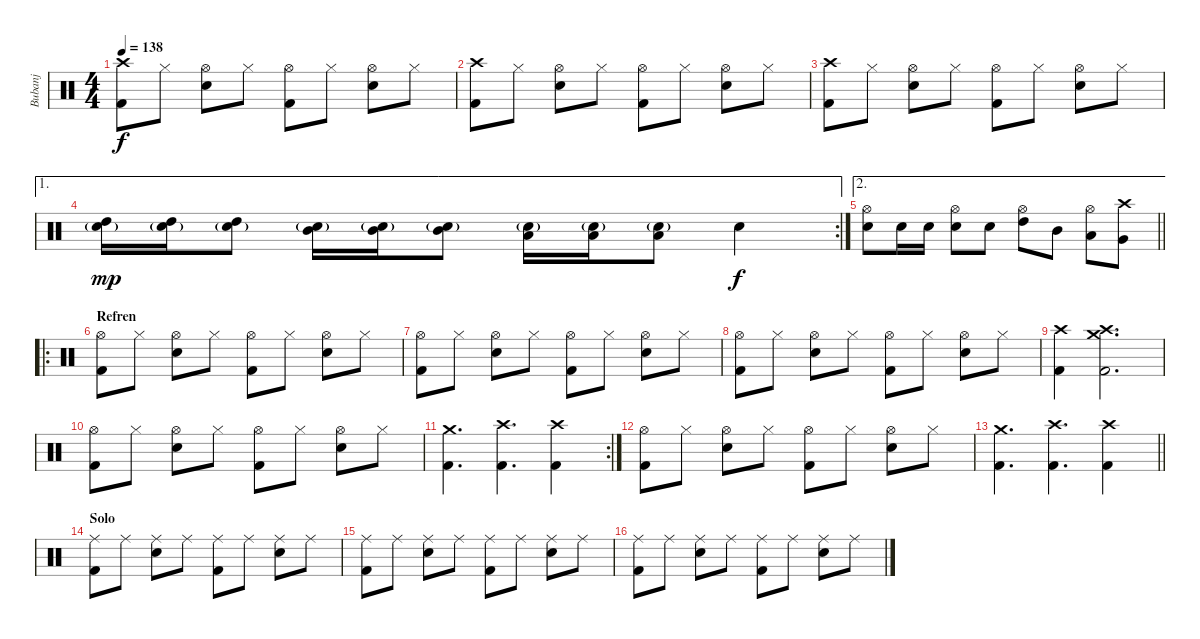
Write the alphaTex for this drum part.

\track ("Bubanj" "Bubanj") {instrument percussion}
\staff {score}
\articulation defaults
\ts (4 4)
\tempo 138
\clef neutral
\ks c
("Crash high (hit)" "Kick (hit) 2").8{dy f} "Hi-Hat (closed)".8 ("Hi-Hat (open)" "Snare (hit) 2").8 "Hi-Hat (closed)".8 ("Hi-Hat (open)" "Kick (hit) 2").8 "Hi-Hat (closed)".8 ("Hi-Hat (open)" "Snare (hit) 2").8 "Hi-Hat (closed)".8 |
("Crash high (hit)" "Kick (hit) 2").8 "Hi-Hat (closed)".8 ("Hi-Hat (open)" "Snare (hit) 2").8 "Hi-Hat (closed)".8 ("Hi-Hat (open)" "Kick (hit) 2").8 "Hi-Hat (closed)".8 ("Hi-Hat (open)" "Snare (hit) 2").8 "Hi-Hat (closed)".8 |
("Crash high (hit)" "Kick (hit) 2").8 "Hi-Hat (closed)".8 ("Hi-Hat (open)" "Snare (hit) 2").8 "Hi-Hat (closed)".8 ("Hi-Hat (open)" "Kick (hit) 2").8 "Hi-Hat (closed)".8 ("Hi-Hat (open)" "Snare (hit) 2").8 "Hi-Hat (closed)".8 |
\ae 1
\rc 2
("High Tom (hit)" "Snare (hit) 2"{g}).16{dy mp} ("High Tom (hit)" "Snare (hit) 2"{g}).16 ("High Tom (hit)" "Snare (hit) 2"{g}).8 ("Mid Tom (hit)" "Snare (hit) 2"{g}).16 ("Mid Tom (hit)" "Snare (hit) 2"{g}).16 ("Mid Tom (hit)" "Snare (hit) 2"{g}).8 ("Low Tom (hit)" "Snare (hit) 2"{g}).16 ("Low Tom (hit)" "Snare (hit) 2"{g}).16 ("Low Tom (hit)" "Snare (hit) 2"{g}).8 "Snare (hit) 2".4{dy f} |
\ae 2
\barLineRight lightlight
("Hi-Hat (open)" "Snare (hit) 2").8 "Snare (hit) 2".16 "Snare (hit) 2".16 ("Hi-Hat (open)" "Snare (hit) 2").8 "Snare (hit) 2".8 ("Hi-Hat (open)" "High Tom (hit)").8 "Mid Tom (hit)".8 ("Hi-Hat (open)" "Low Tom (hit)").8 ("Crash high (hit)" "Very Low Tom (hit)").8 |
\ro
\section ("" "Refren")
("Hi-Hat (open)" "Kick (hit) 2").8 "Hi-Hat (closed)".8 ("Hi-Hat (open)" "Snare (hit) 2").8 "Hi-Hat (closed)".8 ("Hi-Hat (open)" "Kick (hit) 2").8 "Hi-Hat (closed)".8 ("Hi-Hat (open)" "Snare (hit) 2").8 "Hi-Hat (closed)".8 |
("Hi-Hat (open)" "Kick (hit) 2").8 "Hi-Hat (closed)".8 ("Hi-Hat (open)" "Snare (hit) 2").8 "Hi-Hat (closed)".8 ("Hi-Hat (open)" "Kick (hit) 2").8 "Hi-Hat (closed)".8 ("Hi-Hat (open)" "Snare (hit) 2").8 "Hi-Hat (closed)".8 |
("Hi-Hat (open)" "Kick (hit) 2").8 "Hi-Hat (closed)".8 ("Hi-Hat (open)" "Snare (hit) 2").8 "Hi-Hat (closed)".8 ("Hi-Hat (open)" "Kick (hit) 2").8 "Hi-Hat (closed)".8 ("Hi-Hat (open)" "Snare (hit) 2").8 "Hi-Hat (closed)".8 |
("Crash high (hit)" "Kick (hit) 2").4 ("Crash high (hit)" "Crash medium (hit)" "Kick (hit) 2").2{d} |
("Hi-Hat (open)" "Kick (hit) 2").8 "Hi-Hat (closed)".8 ("Hi-Hat (open)" "Snare (hit) 2").8 "Hi-Hat (closed)".8 ("Hi-Hat (open)" "Kick (hit) 2").8 "Hi-Hat (closed)".8 ("Hi-Hat (open)" "Snare (hit) 2").8 "Hi-Hat (closed)".8 |
\rc 2
("Crash medium (hit)" "Kick (hit) 2").4{d} ("Crash high (hit)" "Kick (hit) 2").4{d} ("Crash high (hit)" "Kick (hit) 2").4 |
("Hi-Hat (open)" "Kick (hit) 2").8 "Hi-Hat (closed)".8 ("Hi-Hat (open)" "Snare (hit) 2").8 "Hi-Hat (closed)".8 ("Hi-Hat (open)" "Kick (hit) 2").8 "Hi-Hat (closed)".8 ("Hi-Hat (open)" "Snare (hit) 2").8 "Hi-Hat (closed)".8 |
\barLineRight lightlight
("Crash medium (hit)" "Kick (hit) 2").4{d} ("Crash high (hit)" "Kick (hit) 2").4{d} ("Crash high (hit)" "Kick (hit) 2").4 |
\section ("" "Solo")
("Ride (middle)" "Kick (hit) 2").8 "Ride (middle)".8 ("Ride (middle)" "Snare (hit) 2").8 "Ride (middle)".8 ("Ride (middle)" "Kick (hit) 2").8 "Ride (middle)".8 ("Ride (middle)" "Snare (hit) 2").8 "Ride (middle)".8 |
("Ride (middle)" "Kick (hit) 2").8 "Ride (middle)".8 ("Ride (middle)" "Snare (hit) 2").8 "Ride (middle)".8 ("Ride (middle)" "Kick (hit) 2").8 "Ride (middle)".8 ("Ride (middle)" "Snare (hit) 2").8 "Ride (middle)".8 |
("Ride (middle)" "Kick (hit) 2").8 "Ride (middle)".8 ("Ride (middle)" "Snare (hit) 2").8 "Ride (middle)".8 ("Ride (middle)" "Kick (hit) 2").8 "Ride (middle)".8 ("Ride (middle)" "Snare (hit) 2").8 "Ride (middle)".8
